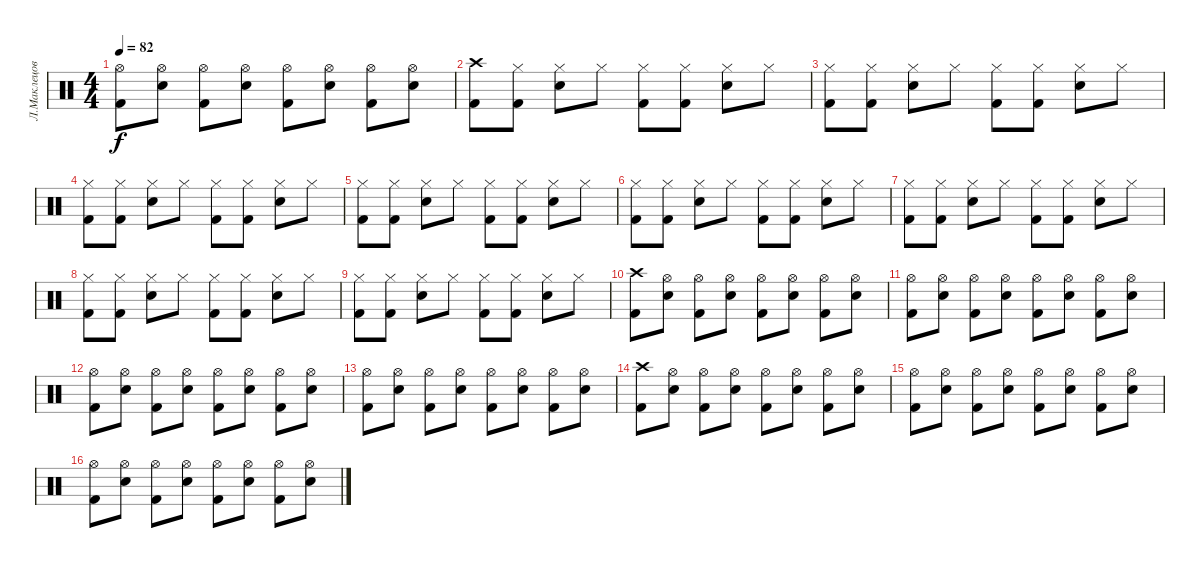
\track ("Л.Маклецова" "Л.Маклецов") {instrument percussion}
\staff {score}
\articulation defaults
\ts (4 4)
\tempo 82
\clef neutral
\ks c
("Hi-Hat (open)" "Kick (hit) 2").8{dy f} ("Hi-Hat (open)" "Snare (hit) 2").8 ("Hi-Hat (open)" "Kick (hit) 2").8 ("Hi-Hat (open)" "Snare (hit) 2").8 ("Hi-Hat (open)" "Kick (hit) 2").8 ("Hi-Hat (open)" "Snare (hit) 2").8 ("Hi-Hat (open)" "Kick (hit) 2").8 ("Hi-Hat (open)" "Snare (hit) 2").8 |
("Crash high (hit)" "Kick (hit) 2").8 ("Hi-Hat (closed)" "Kick (hit) 2").8 ("Hi-Hat (closed)" "Snare (hit) 2").8 "Hi-Hat (closed)".8 ("Hi-Hat (closed)" "Kick (hit) 2").8 ("Hi-Hat (closed)" "Kick (hit) 2").8 ("Hi-Hat (closed)" "Snare (hit) 2").8 "Hi-Hat (closed)".8 |
("Hi-Hat (closed)" "Kick (hit) 2").8 ("Hi-Hat (closed)" "Kick (hit) 2").8 ("Hi-Hat (closed)" "Snare (hit) 2").8 "Hi-Hat (closed)".8 ("Hi-Hat (closed)" "Kick (hit) 2").8 ("Hi-Hat (closed)" "Kick (hit) 2").8 ("Hi-Hat (closed)" "Snare (hit) 2").8 "Hi-Hat (closed)".8 |
("Hi-Hat (closed)" "Kick (hit) 2").8 ("Hi-Hat (closed)" "Kick (hit) 2").8 ("Hi-Hat (closed)" "Snare (hit) 2").8 "Hi-Hat (closed)".8 ("Hi-Hat (closed)" "Kick (hit) 2").8 ("Hi-Hat (closed)" "Kick (hit) 2").8 ("Hi-Hat (closed)" "Snare (hit) 2").8 "Hi-Hat (closed)".8 |
("Hi-Hat (closed)" "Kick (hit) 2").8 ("Hi-Hat (closed)" "Kick (hit) 2").8 ("Hi-Hat (closed)" "Snare (hit) 2").8 "Hi-Hat (closed)".8 ("Hi-Hat (closed)" "Kick (hit) 2").8 ("Hi-Hat (closed)" "Kick (hit) 2").8 ("Hi-Hat (closed)" "Snare (hit) 2").8 "Hi-Hat (closed)".8 |
("Hi-Hat (closed)" "Kick (hit) 2").8 ("Hi-Hat (closed)" "Kick (hit) 2").8 ("Hi-Hat (closed)" "Snare (hit) 2").8 "Hi-Hat (closed)".8 ("Hi-Hat (closed)" "Kick (hit) 2").8 ("Hi-Hat (closed)" "Kick (hit) 2").8 ("Hi-Hat (closed)" "Snare (hit) 2").8 "Hi-Hat (closed)".8 |
("Hi-Hat (closed)" "Kick (hit) 2").8 ("Hi-Hat (closed)" "Kick (hit) 2").8 ("Hi-Hat (closed)" "Snare (hit) 2").8 "Hi-Hat (closed)".8 ("Hi-Hat (closed)" "Kick (hit) 2").8 ("Hi-Hat (closed)" "Kick (hit) 2").8 ("Hi-Hat (closed)" "Snare (hit) 2").8 "Hi-Hat (closed)".8 |
("Hi-Hat (closed)" "Kick (hit) 2").8 ("Hi-Hat (closed)" "Kick (hit) 2").8 ("Hi-Hat (closed)" "Snare (hit) 2").8 "Hi-Hat (closed)".8 ("Hi-Hat (closed)" "Kick (hit) 2").8 ("Hi-Hat (closed)" "Kick (hit) 2").8 ("Hi-Hat (closed)" "Snare (hit) 2").8 "Hi-Hat (closed)".8 |
("Hi-Hat (closed)" "Kick (hit) 2").8 ("Hi-Hat (closed)" "Kick (hit) 2").8 ("Hi-Hat (closed)" "Snare (hit) 2").8 "Hi-Hat (closed)".8 ("Hi-Hat (closed)" "Kick (hit) 2").8 ("Hi-Hat (closed)" "Kick (hit) 2").8 ("Hi-Hat (closed)" "Snare (hit) 2").8 "Hi-Hat (closed)".8 |
("Crash high (hit)" "Kick (hit) 2").8 ("Hi-Hat (open)" "Snare (hit) 2").8 ("Hi-Hat (open)" "Kick (hit) 2").8 ("Hi-Hat (open)" "Snare (hit) 2").8 ("Hi-Hat (open)" "Kick (hit) 2").8 ("Hi-Hat (open)" "Snare (hit) 2").8 ("Hi-Hat (open)" "Kick (hit) 2").8 ("Hi-Hat (open)" "Snare (hit) 2").8 |
("Hi-Hat (open)" "Kick (hit) 2").8 ("Hi-Hat (open)" "Snare (hit) 2").8 ("Hi-Hat (open)" "Kick (hit) 2").8 ("Hi-Hat (open)" "Snare (hit) 2").8 ("Hi-Hat (open)" "Kick (hit) 2").8 ("Hi-Hat (open)" "Snare (hit) 2").8 ("Hi-Hat (open)" "Kick (hit) 2").8 ("Hi-Hat (open)" "Snare (hit) 2").8 |
("Hi-Hat (open)" "Kick (hit) 2").8 ("Hi-Hat (open)" "Snare (hit) 2").8 ("Hi-Hat (open)" "Kick (hit) 2").8 ("Hi-Hat (open)" "Snare (hit) 2").8 ("Hi-Hat (open)" "Kick (hit) 2").8 ("Hi-Hat (open)" "Snare (hit) 2").8 ("Hi-Hat (open)" "Kick (hit) 2").8 ("Hi-Hat (open)" "Snare (hit) 2").8 |
("Hi-Hat (open)" "Kick (hit) 2").8 ("Hi-Hat (open)" "Snare (hit) 2").8 ("Hi-Hat (open)" "Kick (hit) 2").8 ("Hi-Hat (open)" "Snare (hit) 2").8 ("Hi-Hat (open)" "Kick (hit) 2").8 ("Hi-Hat (open)" "Snare (hit) 2").8 ("Hi-Hat (open)" "Kick (hit) 2").8 ("Hi-Hat (open)" "Snare (hit) 2").8 |
("Crash high (hit)" "Kick (hit) 2").8 ("Hi-Hat (open)" "Snare (hit) 2").8 ("Hi-Hat (open)" "Kick (hit) 2").8 ("Hi-Hat (open)" "Snare (hit) 2").8 ("Hi-Hat (open)" "Kick (hit) 2").8 ("Hi-Hat (open)" "Snare (hit) 2").8 ("Hi-Hat (open)" "Kick (hit) 2").8 ("Hi-Hat (open)" "Snare (hit) 2").8 |
("Hi-Hat (open)" "Kick (hit) 2").8 ("Hi-Hat (open)" "Snare (hit) 2").8 ("Hi-Hat (open)" "Kick (hit) 2").8 ("Hi-Hat (open)" "Snare (hit) 2").8 ("Hi-Hat (open)" "Kick (hit) 2").8 ("Hi-Hat (open)" "Snare (hit) 2").8 ("Hi-Hat (open)" "Kick (hit) 2").8 ("Hi-Hat (open)" "Snare (hit) 2").8 |
("Hi-Hat (open)" "Kick (hit) 2").8 ("Hi-Hat (open)" "Snare (hit) 2").8 ("Hi-Hat (open)" "Kick (hit) 2").8 ("Hi-Hat (open)" "Snare (hit) 2").8 ("Hi-Hat (open)" "Kick (hit) 2").8 ("Hi-Hat (open)" "Snare (hit) 2").8 ("Hi-Hat (open)" "Kick (hit) 2").8 ("Hi-Hat (open)" "Snare (hit) 2").8
